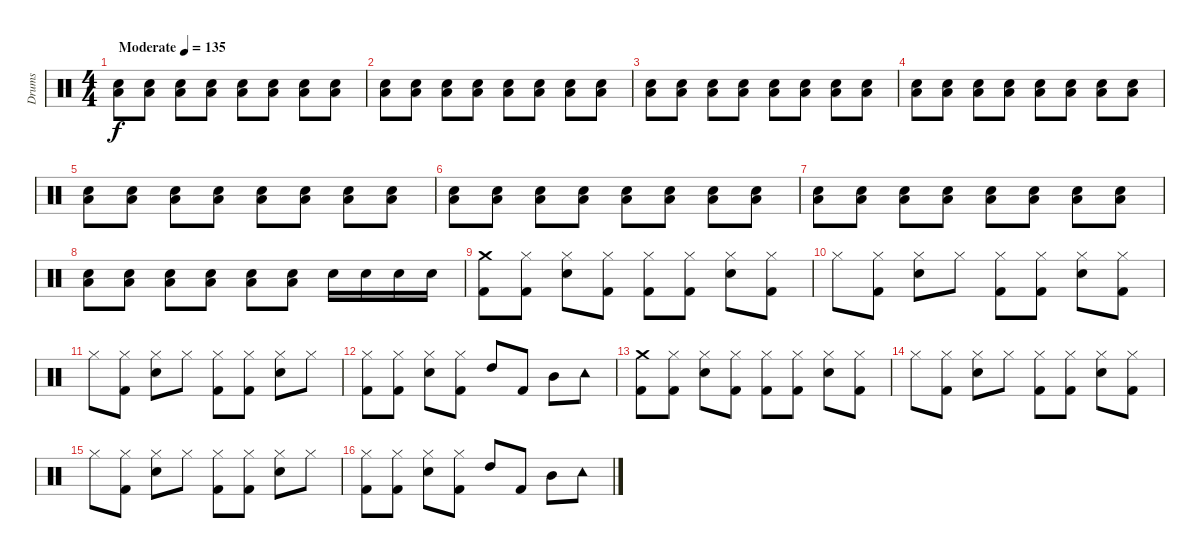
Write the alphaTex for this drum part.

\track ("Drums" "Drums") {instrument percussion}
\staff {score}
\articulation defaults
\ts (4 4)
\tempo (135 "Moderate")
\clef neutral
\ks c
("Low Floor Tom (hit)" "Snare (hit) 2").8{dy f} ("Low Floor Tom (hit)" "Snare (hit) 2").8 ("Low Floor Tom (hit)" "Snare (hit) 2").8 ("Low Floor Tom (hit)" "Snare (hit) 2").8 ("Low Floor Tom (hit)" "Snare (hit) 2").8 ("Low Floor Tom (hit)" "Snare (hit) 2").8 ("Low Floor Tom (hit)" "Snare (hit) 2").8 ("Low Floor Tom (hit)" "Snare (hit) 2").8 |
("Low Floor Tom (hit)" "Snare (hit) 2").8 ("Low Floor Tom (hit)" "Snare (hit) 2").8 ("Low Floor Tom (hit)" "Snare (hit) 2").8 ("Low Floor Tom (hit)" "Snare (hit) 2").8 ("Low Floor Tom (hit)" "Snare (hit) 2").8 ("Low Floor Tom (hit)" "Snare (hit) 2").8 ("Low Floor Tom (hit)" "Snare (hit) 2").8 ("Low Floor Tom (hit)" "Snare (hit) 2").8 |
("Low Floor Tom (hit)" "Snare (hit) 2").8 ("Low Floor Tom (hit)" "Snare (hit) 2").8 ("Low Floor Tom (hit)" "Snare (hit) 2").8 ("Low Floor Tom (hit)" "Snare (hit) 2").8 ("Low Floor Tom (hit)" "Snare (hit) 2").8 ("Low Floor Tom (hit)" "Snare (hit) 2").8 ("Low Floor Tom (hit)" "Snare (hit) 2").8 ("Low Floor Tom (hit)" "Snare (hit) 2").8 |
("Low Floor Tom (hit)" "Snare (hit) 2").8 ("Low Floor Tom (hit)" "Snare (hit) 2").8 ("Low Floor Tom (hit)" "Snare (hit) 2").8 ("Low Floor Tom (hit)" "Snare (hit) 2").8 ("Low Floor Tom (hit)" "Snare (hit) 2").8 ("Low Floor Tom (hit)" "Snare (hit) 2").8 ("Low Floor Tom (hit)" "Snare (hit) 2").8 ("Low Floor Tom (hit)" "Snare (hit) 2").8 |
("Low Floor Tom (hit)" "Snare (hit) 2").8 ("Low Floor Tom (hit)" "Snare (hit) 2").8 ("Low Floor Tom (hit)" "Snare (hit) 2").8 ("Low Floor Tom (hit)" "Snare (hit) 2").8 ("Low Floor Tom (hit)" "Snare (hit) 2").8 ("Low Floor Tom (hit)" "Snare (hit) 2").8 ("Low Floor Tom (hit)" "Snare (hit) 2").8 ("Low Floor Tom (hit)" "Snare (hit) 2").8 |
("Low Floor Tom (hit)" "Snare (hit) 2").8 ("Low Floor Tom (hit)" "Snare (hit) 2").8 ("Low Floor Tom (hit)" "Snare (hit) 2").8 ("Low Floor Tom (hit)" "Snare (hit) 2").8 ("Low Floor Tom (hit)" "Snare (hit) 2").8 ("Low Floor Tom (hit)" "Snare (hit) 2").8 ("Low Floor Tom (hit)" "Snare (hit) 2").8 ("Low Floor Tom (hit)" "Snare (hit) 2").8 |
("Low Floor Tom (hit)" "Snare (hit) 2").8 ("Low Floor Tom (hit)" "Snare (hit) 2").8 ("Low Floor Tom (hit)" "Snare (hit) 2").8 ("Low Floor Tom (hit)" "Snare (hit) 2").8 ("Low Floor Tom (hit)" "Snare (hit) 2").8 ("Low Floor Tom (hit)" "Snare (hit) 2").8 ("Low Floor Tom (hit)" "Snare (hit) 2").8 ("Low Floor Tom (hit)" "Snare (hit) 2").8 |
("Low Floor Tom (hit)" "Snare (hit) 2").8 ("Low Floor Tom (hit)" "Snare (hit) 2").8 ("Low Floor Tom (hit)" "Snare (hit) 2").8 ("Low Floor Tom (hit)" "Snare (hit) 2").8 ("Low Floor Tom (hit)" "Snare (hit) 2").8 ("Low Floor Tom (hit)" "Snare (hit) 2").8 "Snare (hit) 2".16 "Snare (hit) 2".16 "Snare (hit) 2".16 "Snare (hit) 2".16 |
("Crash medium (hit)" "Kick (hit) 2").8 ("Hi-Hat (closed)" "Kick (hit) 2").8 ("Hi-Hat (closed)" "Snare (hit) 2").8 ("Hi-Hat (closed)" "Kick (hit) 2").8 ("Hi-Hat (closed)" "Kick (hit) 2").8 ("Hi-Hat (closed)" "Kick (hit) 2").8 ("Hi-Hat (closed)" "Snare (hit) 2").8 ("Hi-Hat (closed)" "Kick (hit) 2").8 |
"Hi-Hat (closed)".8 ("Hi-Hat (closed)" "Kick (hit) 2").8 ("Hi-Hat (closed)" "Snare (hit) 2").8 "Hi-Hat (closed)".8 ("Hi-Hat (closed)" "Kick (hit) 2").8 ("Hi-Hat (closed)" "Kick (hit) 2").8 ("Hi-Hat (closed)" "Snare (hit) 2").8 ("Hi-Hat (closed)" "Kick (hit) 2").8 |
"Hi-Hat (closed)".8 ("Hi-Hat (closed)" "Kick (hit) 2").8 ("Hi-Hat (closed)" "Snare (hit) 2").8 "Hi-Hat (closed)".8 ("Hi-Hat (closed)" "Kick (hit) 2").8 ("Hi-Hat (closed)" "Kick (hit) 2").8 ("Hi-Hat (closed)" "Snare (hit) 2").8 "Hi-Hat (closed)".8 |
("Hi-Hat (closed)" "Kick (hit) 2").8 ("Hi-Hat (closed)" "Kick (hit) 2").8 ("Hi-Hat (closed)" "Snare (hit) 2").8 ("Hi-Hat (closed)" "Kick (hit) 2").8 "High Tom (hit)".8 "Kick (hit) 2".8 "Mid Tom (hit)".8 "Tambourine (hit)".8 |
("Crash medium (hit)" "Kick (hit) 2").8 ("Hi-Hat (closed)" "Kick (hit) 2").8 ("Hi-Hat (closed)" "Snare (hit) 2").8 ("Hi-Hat (closed)" "Kick (hit) 2").8 ("Hi-Hat (closed)" "Kick (hit) 2").8 ("Hi-Hat (closed)" "Kick (hit) 2").8 ("Hi-Hat (closed)" "Snare (hit) 2").8 ("Hi-Hat (closed)" "Kick (hit) 2").8 |
"Hi-Hat (closed)".8 ("Hi-Hat (closed)" "Kick (hit) 2").8 ("Hi-Hat (closed)" "Snare (hit) 2").8 "Hi-Hat (closed)".8 ("Hi-Hat (closed)" "Kick (hit) 2").8 ("Hi-Hat (closed)" "Kick (hit) 2").8 ("Hi-Hat (closed)" "Snare (hit) 2").8 ("Hi-Hat (closed)" "Kick (hit) 2").8 |
"Hi-Hat (closed)".8 ("Hi-Hat (closed)" "Kick (hit) 2").8 ("Hi-Hat (closed)" "Snare (hit) 2").8 "Hi-Hat (closed)".8 ("Hi-Hat (closed)" "Kick (hit) 2").8 ("Hi-Hat (closed)" "Kick (hit) 2").8 ("Hi-Hat (closed)" "Snare (hit) 2").8 "Hi-Hat (closed)".8 |
("Hi-Hat (closed)" "Kick (hit) 2").8 ("Hi-Hat (closed)" "Kick (hit) 2").8 ("Hi-Hat (closed)" "Snare (hit) 2").8 ("Hi-Hat (closed)" "Kick (hit) 2").8 "High Tom (hit)".8 "Kick (hit) 2".8 "Mid Tom (hit)".8 "Tambourine (hit)".8
